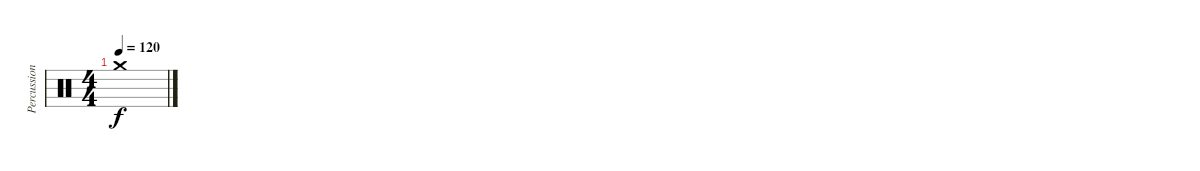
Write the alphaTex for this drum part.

\track ("Percussion" "Percussion") {instrument percussion}
\staff {score}
\articulation defaults
\ts (4 4)
\tempo 120
\clef neutral
\ks c "Crash medium (hit)".1{dy f}
